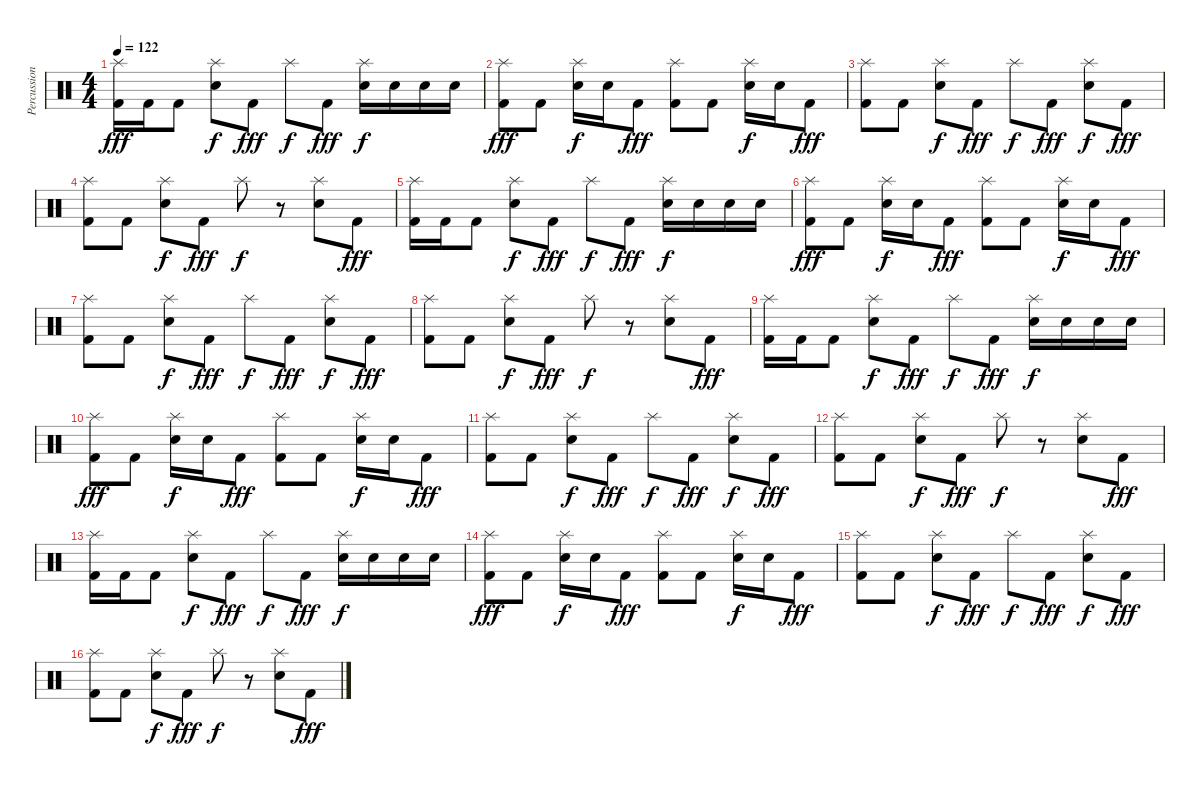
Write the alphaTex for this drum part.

\track ("Percussion" "Percussion") {instrument percussion}
\staff {score}
\articulation defaults
\ts (4 4)
\tempo 122
\clef neutral
\ks c
("Splash (hit)" "Kick (hit) 2").16{dy fff} "Kick (hit) 2".16 "Kick (hit) 2".8 ("Splash (hit)" "Snare (hit) 2").8{dy f} "Kick (hit) 2".8{dy fff} "Splash (hit)".8{dy f} "Kick (hit) 2".8{dy fff} ("Splash (hit)" "Snare (hit) 2").16{dy f} "Snare (hit) 2".16 "Snare (hit) 2".16 "Snare (hit) 2".16 |
("Splash (hit)" "Kick (hit) 2").8{dy fff} "Kick (hit) 2".8 ("Splash (hit)" "Snare (hit) 2").16{dy f} "Snare (hit) 2".16 "Kick (hit) 2".8{dy fff} ("Splash (hit)" "Kick (hit) 2").8 "Kick (hit) 2".8 ("Splash (hit)" "Snare (hit) 2").16{dy f} "Snare (hit) 2".16 "Kick (hit) 2".8{dy fff} |
("Splash (hit)" "Kick (hit) 2").8{volume 15} "Kick (hit) 2".8 ("Splash (hit)" "Snare (hit) 2").8{dy f} "Kick (hit) 2".8{dy fff} "Splash (hit)".8{dy f} "Kick (hit) 2".8{dy fff} ("Splash (hit)" "Snare (hit) 2").8{dy f} "Kick (hit) 2".8{dy fff} |
("Splash (hit)" "Kick (hit) 2").8 "Kick (hit) 2".8 ("Splash (hit)" "Snare (hit) 2").8{dy f} "Kick (hit) 2".8{dy fff} "Splash (hit)".8{dy f} r.8 ("Splash (hit)" "Snare (hit) 2").8 "Kick (hit) 2".8{dy fff} |
("Splash (hit)" "Kick (hit) 2").16 "Kick (hit) 2".16 "Kick (hit) 2".8 ("Splash (hit)" "Snare (hit) 2").8{dy f} "Kick (hit) 2".8{dy fff} "Splash (hit)".8{dy f} "Kick (hit) 2".8{dy fff} ("Splash (hit)" "Snare (hit) 2").16{dy f} "Snare (hit) 2".16 "Snare (hit) 2".16 "Snare (hit) 2".16 |
("Splash (hit)" "Kick (hit) 2").8{dy fff} "Kick (hit) 2".8 ("Splash (hit)" "Snare (hit) 2").16{dy f} "Snare (hit) 2".16 "Kick (hit) 2".8{dy fff} ("Splash (hit)" "Kick (hit) 2").8 "Kick (hit) 2".8 ("Splash (hit)" "Snare (hit) 2").16{dy f} "Snare (hit) 2".16 "Kick (hit) 2".8{dy fff} |
("Splash (hit)" "Kick (hit) 2").8{volume 15} "Kick (hit) 2".8 ("Splash (hit)" "Snare (hit) 2").8{dy f} "Kick (hit) 2".8{dy fff} "Splash (hit)".8{dy f} "Kick (hit) 2".8{dy fff} ("Splash (hit)" "Snare (hit) 2").8{dy f} "Kick (hit) 2".8{dy fff} |
("Splash (hit)" "Kick (hit) 2").8 "Kick (hit) 2".8 ("Splash (hit)" "Snare (hit) 2").8{dy f} "Kick (hit) 2".8{dy fff} "Splash (hit)".8{dy f} r.8 ("Splash (hit)" "Snare (hit) 2").8 "Kick (hit) 2".8{dy fff} |
("Splash (hit)" "Kick (hit) 2").16 "Kick (hit) 2".16 "Kick (hit) 2".8 ("Splash (hit)" "Snare (hit) 2").8{dy f} "Kick (hit) 2".8{dy fff} "Splash (hit)".8{dy f} "Kick (hit) 2".8{dy fff} ("Splash (hit)" "Snare (hit) 2").16{dy f} "Snare (hit) 2".16 "Snare (hit) 2".16 "Snare (hit) 2".16 |
("Splash (hit)" "Kick (hit) 2").8{dy fff} "Kick (hit) 2".8 ("Splash (hit)" "Snare (hit) 2").16{dy f} "Snare (hit) 2".16 "Kick (hit) 2".8{dy fff} ("Splash (hit)" "Kick (hit) 2").8 "Kick (hit) 2".8 ("Splash (hit)" "Snare (hit) 2").16{dy f} "Snare (hit) 2".16 "Kick (hit) 2".8{dy fff} |
("Splash (hit)" "Kick (hit) 2").8{volume 15} "Kick (hit) 2".8 ("Splash (hit)" "Snare (hit) 2").8{dy f} "Kick (hit) 2".8{dy fff} "Splash (hit)".8{dy f} "Kick (hit) 2".8{dy fff} ("Splash (hit)" "Snare (hit) 2").8{dy f} "Kick (hit) 2".8{dy fff} |
("Splash (hit)" "Kick (hit) 2").8 "Kick (hit) 2".8 ("Splash (hit)" "Snare (hit) 2").8{dy f} "Kick (hit) 2".8{dy fff} "Splash (hit)".8{dy f} r.8 ("Splash (hit)" "Snare (hit) 2").8 "Kick (hit) 2".8{dy fff} |
("Splash (hit)" "Kick (hit) 2").16 "Kick (hit) 2".16 "Kick (hit) 2".8 ("Splash (hit)" "Snare (hit) 2").8{dy f} "Kick (hit) 2".8{dy fff} "Splash (hit)".8{dy f} "Kick (hit) 2".8{dy fff} ("Splash (hit)" "Snare (hit) 2").16{dy f} "Snare (hit) 2".16 "Snare (hit) 2".16 "Snare (hit) 2".16 |
("Splash (hit)" "Kick (hit) 2").8{dy fff} "Kick (hit) 2".8 ("Splash (hit)" "Snare (hit) 2").16{dy f} "Snare (hit) 2".16 "Kick (hit) 2".8{dy fff} ("Splash (hit)" "Kick (hit) 2").8 "Kick (hit) 2".8 ("Splash (hit)" "Snare (hit) 2").16{dy f} "Snare (hit) 2".16 "Kick (hit) 2".8{dy fff} |
("Splash (hit)" "Kick (hit) 2").8{volume 15} "Kick (hit) 2".8 ("Splash (hit)" "Snare (hit) 2").8{dy f} "Kick (hit) 2".8{dy fff} "Splash (hit)".8{dy f} "Kick (hit) 2".8{dy fff} ("Splash (hit)" "Snare (hit) 2").8{dy f} "Kick (hit) 2".8{dy fff} |
("Splash (hit)" "Kick (hit) 2").8 "Kick (hit) 2".8 ("Splash (hit)" "Snare (hit) 2").8{dy f} "Kick (hit) 2".8{dy fff} "Splash (hit)".8{dy f} r.8 ("Splash (hit)" "Snare (hit) 2").8 "Kick (hit) 2".8{dy fff}
